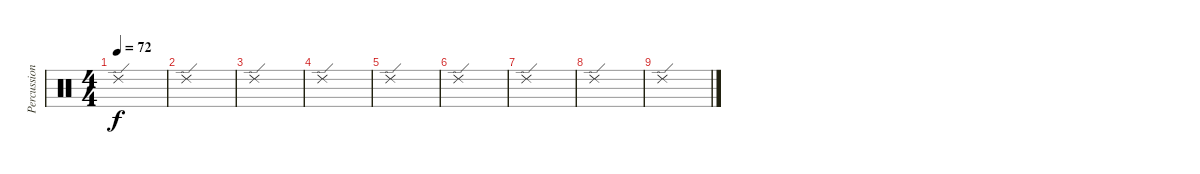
\track ("Percussion" "Percussion") {instrument percussion}
\staff {score}
\articulation defaults
\ts (4 4)
\tempo 72
\clef neutral
\ks c "Ride (edge) 2".1{dy f}
|
"Ride (edge) 2".1 |
"Ride (edge) 2".1 |
"Ride (edge) 2".1 |
"Ride (edge) 2".1 |
"Ride (edge) 2".1 |
"Ride (edge) 2".1 |
"Ride (edge) 2".1 |
"Ride (edge) 2".1
